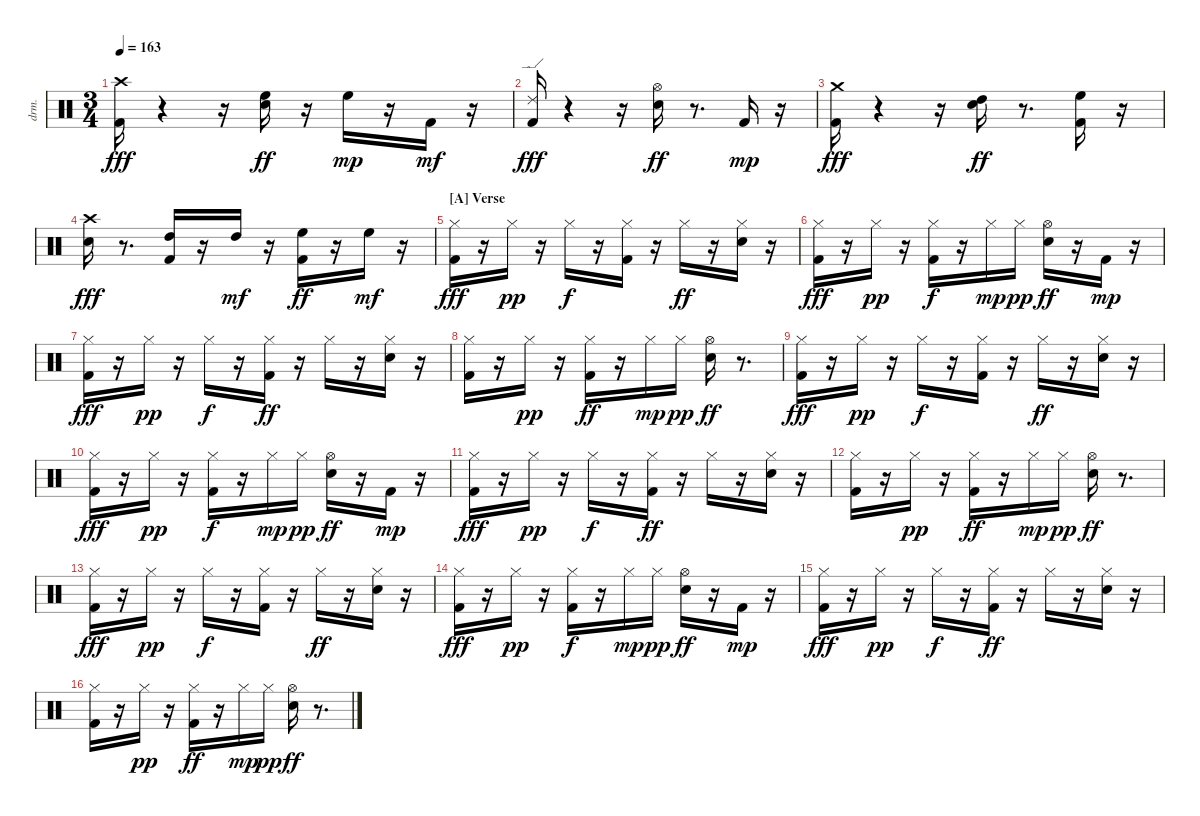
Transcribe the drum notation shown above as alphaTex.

\bracketExtendMode nobrackets
\track ("EZdrummer 3" "drm.") {instrument percussion}
\staff {score}
\articulation defaults
\ts (3 4)
\tempo 163
\clef neutral
\ks aminor
("Kick (hit) 2" "Crash high (hit)"{acc #}).16{dy fff} r.4 r.16 ("Snare (hit) 2" "High Floor Tom (hit)").16{dy ff} r.16 "High Floor Tom (hit)".16{dy mp} r.16 "Kick (hit) 2".16{dy mf} r.16 |
("Kick (hit) 2" "Ride (edge) 2").16{dy fff} r.4 r.16 ("Snare (hit) 2" "Hi-Hat (open)"{acc #}).16{dy ff} r.8{d} "Kick (hit) 2".16{dy mp} r.16 |
("Kick (hit) 2" "Crash medium (hit)").16{dy fff} r.4 r.16 ("Snare (hit) 2" "High Tom (hit)").16{dy ff} r.8{d} ("Kick (hit) 2" "High Floor Tom (hit)").16 r.16 |
("Snare (hit) 2" "Crash high (hit)"{acc #}).16{dy fff} r.8{d} ("Kick (hit) 2" "High Tom (hit)").16 r.16 "High Tom (hit)".16{dy mf} r.16 ("Kick (hit) 2" "High Floor Tom (hit)").16{dy ff} r.16 "High Floor Tom (hit)".16{dy mf} r.16 |
\section ("A" "Verse")
("Kick (hit) 2" "Hi-Hat (closed)"{acc #}).16{dy fff} r.16 "Hi-Hat (closed)"{acc #}.16{dy pp} r.16 "Hi-Hat (closed)"{acc #}.16{dy f} r.16 ("Kick (hit) 2" "Hi-Hat (closed)"{acc #}).16 r.16 "Hi-Hat (closed)"{acc #}.16{dy ff} r.16 ("Snare (hit) 2" "Hi-Hat (closed)"{acc #}).16 r.16 |
("Kick (hit) 2" "Hi-Hat (closed)"{acc #}).16{dy fff} r.16 "Hi-Hat (closed)"{acc #}.16{dy pp} r.16 ("Kick (hit) 2" "Hi-Hat (closed)"{acc #}).16{dy f} r.16 "Hi-Hat (closed)"{acc #}.16{dy mp} "Hi-Hat (closed)"{acc #}.16{dy pp} ("Snare (hit) 2" "Hi-Hat (open)"{acc #}).16{dy ff} r.16 "Kick (hit) 2".16{dy mp} r.16 |
("Kick (hit) 2" "Hi-Hat (closed)"{acc #}).16{dy fff} r.16 "Hi-Hat (closed)"{acc #}.16{dy pp} r.16 "Hi-Hat (closed)"{acc #}.16{dy f} r.16 ("Kick (hit) 2" "Hi-Hat (closed)"{acc #}).16{dy ff} r.16 "Hi-Hat (closed)"{acc #}.16 r.16 ("Snare (hit) 2" "Hi-Hat (closed)"{acc #}).16 r.16 |
("Kick (hit) 2" "Hi-Hat (closed)"{acc #}).16 r.16 "Hi-Hat (closed)"{acc #}.16{dy pp} r.16 ("Kick (hit) 2" "Hi-Hat (closed)"{acc #}).16{dy ff} r.16 "Hi-Hat (closed)"{acc #}.16{dy mp} "Hi-Hat (closed)"{acc #}.16{dy pp} ("Snare (hit) 2" "Hi-Hat (open)"{acc #}).16{dy ff} r.8{d} |
("Kick (hit) 2" "Hi-Hat (closed)"{acc #}).16{dy fff} r.16 "Hi-Hat (closed)"{acc #}.16{dy pp} r.16 "Hi-Hat (closed)"{acc #}.16{dy f} r.16 ("Kick (hit) 2" "Hi-Hat (closed)"{acc #}).16 r.16 "Hi-Hat (closed)"{acc #}.16{dy ff} r.16 ("Snare (hit) 2" "Hi-Hat (closed)"{acc #}).16 r.16 |
("Kick (hit) 2" "Hi-Hat (closed)"{acc #}).16{dy fff} r.16 "Hi-Hat (closed)"{acc #}.16{dy pp} r.16 ("Kick (hit) 2" "Hi-Hat (closed)"{acc #}).16{dy f} r.16 "Hi-Hat (closed)"{acc #}.16{dy mp} "Hi-Hat (closed)"{acc #}.16{dy pp} ("Snare (hit) 2" "Hi-Hat (open)"{acc #}).16{dy ff} r.16 "Kick (hit) 2".16{dy mp} r.16 |
("Kick (hit) 2" "Hi-Hat (closed)"{acc #}).16{dy fff} r.16 "Hi-Hat (closed)"{acc #}.16{dy pp} r.16 "Hi-Hat (closed)"{acc #}.16{dy f} r.16 ("Kick (hit) 2" "Hi-Hat (closed)"{acc #}).16{dy ff} r.16 "Hi-Hat (closed)"{acc #}.16 r.16 ("Snare (hit) 2" "Hi-Hat (closed)"{acc #}).16 r.16 |
("Kick (hit) 2" "Hi-Hat (closed)"{acc #}).16 r.16 "Hi-Hat (closed)"{acc #}.16{dy pp} r.16 ("Kick (hit) 2" "Hi-Hat (closed)"{acc #}).16{dy ff} r.16 "Hi-Hat (closed)"{acc #}.16{dy mp} "Hi-Hat (closed)"{acc #}.16{dy pp} ("Snare (hit) 2" "Hi-Hat (open)"{acc #}).16{dy ff} r.8{d} |
("Kick (hit) 2" "Hi-Hat (closed)"{acc #}).16{dy fff} r.16 "Hi-Hat (closed)"{acc #}.16{dy pp} r.16 "Hi-Hat (closed)"{acc #}.16{dy f} r.16 ("Kick (hit) 2" "Hi-Hat (closed)"{acc #}).16 r.16 "Hi-Hat (closed)"{acc #}.16{dy ff} r.16 ("Snare (hit) 2" "Hi-Hat (closed)"{acc #}).16 r.16 |
("Kick (hit) 2" "Hi-Hat (closed)"{acc #}).16{dy fff} r.16 "Hi-Hat (closed)"{acc #}.16{dy pp} r.16 ("Kick (hit) 2" "Hi-Hat (closed)"{acc #}).16{dy f} r.16 "Hi-Hat (closed)"{acc #}.16{dy mp} "Hi-Hat (closed)"{acc #}.16{dy pp} ("Snare (hit) 2" "Hi-Hat (open)"{acc #}).16{dy ff} r.16 "Kick (hit) 2".16{dy mp} r.16 |
("Kick (hit) 2" "Hi-Hat (closed)"{acc #}).16{dy fff} r.16 "Hi-Hat (closed)"{acc #}.16{dy pp} r.16 "Hi-Hat (closed)"{acc #}.16{dy f} r.16 ("Kick (hit) 2" "Hi-Hat (closed)"{acc #}).16{dy ff} r.16 "Hi-Hat (closed)"{acc #}.16 r.16 ("Snare (hit) 2" "Hi-Hat (closed)"{acc #}).16 r.16 |
("Kick (hit) 2" "Hi-Hat (closed)"{acc #}).16 r.16 "Hi-Hat (closed)"{acc #}.16{dy pp} r.16 ("Kick (hit) 2" "Hi-Hat (closed)"{acc #}).16{dy ff} r.16 "Hi-Hat (closed)"{acc #}.16{dy mp} "Hi-Hat (closed)"{acc #}.16{dy pp} ("Snare (hit) 2" "Hi-Hat (open)"{acc #}).16{dy ff} r.8{d}
